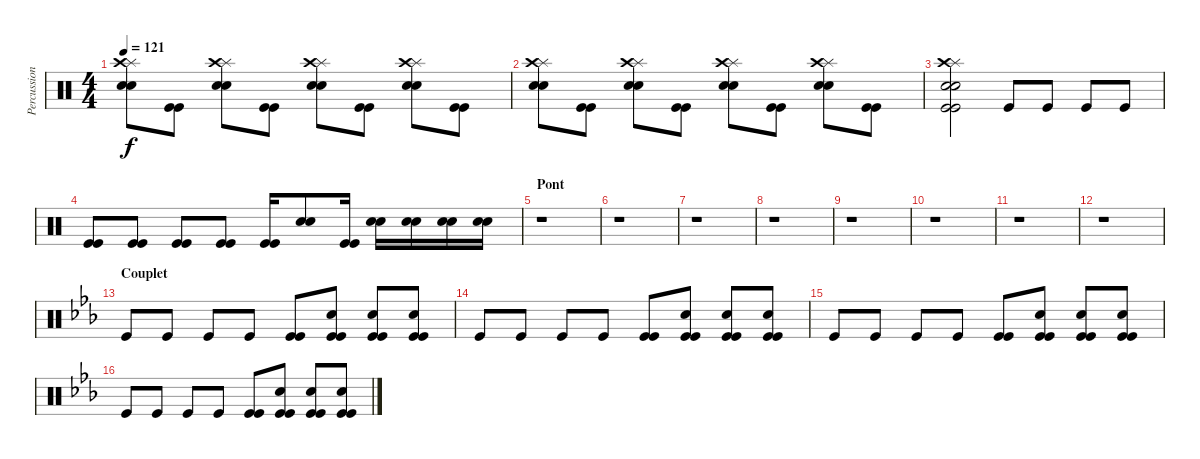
\track ("Percussions" "Percussion") {instrument percussion}
\staff {score}
\articulation defaults
\ts (4 4)
\tempo 121
\clef neutral
\ks c
("Splash (hit)" "Crash high (hit)" "Electric Snare (hit)" "Electric Snare (hit)").8{dy f} ("Kick (hit)" "Kick (hit)").8 ("Splash (hit)" "Crash high (hit)" "Electric Snare (hit)" "Electric Snare (hit)").8 ("Kick (hit)" "Kick (hit)").8 ("Splash (hit)" "Crash high (hit)" "Electric Snare (hit)" "Electric Snare (hit)").8 ("Kick (hit)" "Kick (hit)").8 ("Splash (hit)" "Crash high (hit)" "Electric Snare (hit)" "Electric Snare (hit)").8 ("Kick (hit)" "Kick (hit)").8 |
("Splash (hit)" "Crash high (hit)" "Electric Snare (hit)" "Electric Snare (hit)").8 ("Kick (hit)" "Kick (hit)").8 ("Splash (hit)" "Crash high (hit)" "Electric Snare (hit)" "Electric Snare (hit)").8 ("Kick (hit)" "Kick (hit)").8 ("Splash (hit)" "Crash high (hit)" "Electric Snare (hit)" "Electric Snare (hit)").8 ("Kick (hit)" "Kick (hit)").8 ("Splash (hit)" "Crash high (hit)" "Electric Snare (hit)" "Electric Snare (hit)").8 ("Kick (hit)" "Kick (hit)").8 |
("Splash (hit)" "Crash high (hit)" "Electric Snare (hit)" "Electric Snare (hit)" "Kick (hit)" "Kick (hit)").2 "Kick (hit)".8 "Kick (hit)".8 "Kick (hit)".8 "Kick (hit)".8 |
("Kick (hit)" "Kick (hit)").8 ("Kick (hit)" "Kick (hit)").8 ("Kick (hit)" "Kick (hit)").8 ("Kick (hit)" "Kick (hit)").8 ("Kick (hit)" "Kick (hit)").16 ("Electric Snare (hit)" "Electric Snare (hit)").8 ("Kick (hit)" "Kick (hit)").16 ("Electric Snare (hit)" "Electric Snare (hit)").16 ("Electric Snare (hit)" "Electric Snare (hit)").16 ("Electric Snare (hit)" "Electric Snare (hit)").16 ("Electric Snare (hit)" "Electric Snare (hit)").16 |
\section ("" "Pont")
r.1 |
r.1 |
r.1 |
r.1 |
r.1 |
r.1 |
r.1 |
r.1 |
\section ("" "Couplet")
\ks eb "Kick (hit)".8 "Kick (hit)".8 "Kick (hit)".8 "Kick (hit)".8
("Kick (hit)" "Kick (hit)").8 ("Electric Snare (hit)" "Kick (hit)" "Kick (hit)").8 ("Electric Snare (hit)" "Kick (hit)" "Kick (hit)").8 ("Electric Snare (hit)" "Kick (hit)" "Kick (hit)").8 |
"Kick (hit)".8 "Kick (hit)".8 "Kick (hit)".8 "Kick (hit)".8 ("Kick (hit)" "Kick (hit)").8 ("Electric Snare (hit)" "Kick (hit)" "Kick (hit)").8 ("Electric Snare (hit)" "Kick (hit)" "Kick (hit)").8 ("Electric Snare (hit)" "Kick (hit)" "Kick (hit)").8 |
"Kick (hit)".8 "Kick (hit)".8 "Kick (hit)".8 "Kick (hit)".8 ("Kick (hit)" "Kick (hit)").8 ("Electric Snare (hit)" "Kick (hit)" "Kick (hit)").8 ("Electric Snare (hit)" "Kick (hit)" "Kick (hit)").8 ("Electric Snare (hit)" "Kick (hit)" "Kick (hit)").8 |
"Kick (hit)".8 "Kick (hit)".8 "Kick (hit)".8 "Kick (hit)".8 ("Kick (hit)" "Kick (hit)").8 ("Electric Snare (hit)" "Kick (hit)" "Kick (hit)").8 ("Electric Snare (hit)" "Kick (hit)" "Kick (hit)").8 ("Electric Snare (hit)" "Kick (hit)" "Kick (hit)").8
